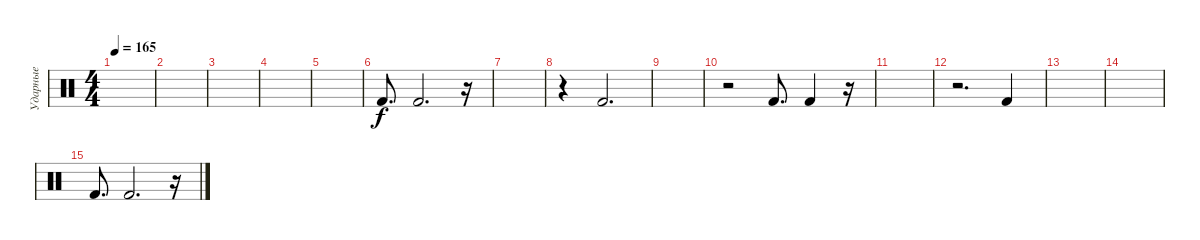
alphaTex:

\track ("Ударные" "Ударные") {instrument percussion}
\staff {score}
\articulation defaults
\ts (4 4)
\tempo 165
\clef neutral
\ks c
|
|
|
|
|
"Kick (hit) 2".8{d} "Kick (hit) 2".2{d} r.16 |
|
r.4 "Kick (hit) 2".2{d} |
|
r.2 "Kick (hit) 2".8{d} "Kick (hit) 2".4 r.16 |
|
r.2{d} "Kick (hit) 2".4 |
|
|
"Kick (hit) 2".8{d} "Kick (hit) 2".2{d} r.16
